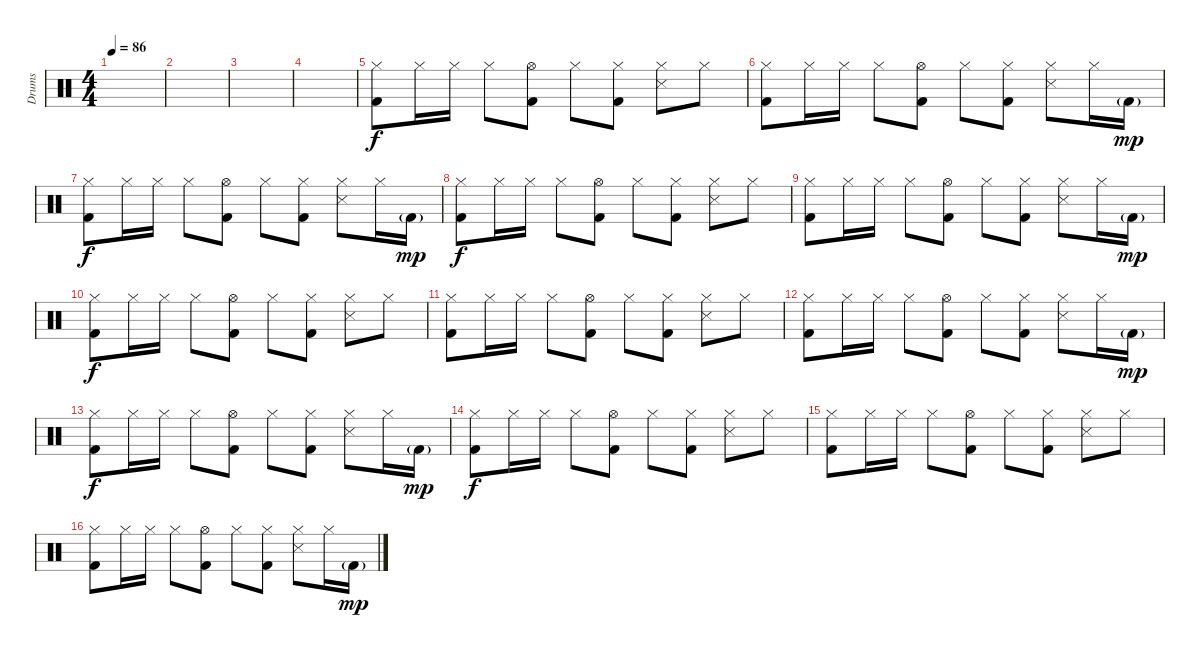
\track ("Drums" "Drums") {instrument percussion}
\staff {score}
\articulation defaults
\ts (4 4)
\tempo 86
\clef neutral
\ks c
|
|
|
|
("Hi-Hat (closed)" "Kick (hit) 2").8 "Hi-Hat (closed)".16 "Hi-Hat (closed)".16 "Hi-Hat (closed)".8 ("Hi-Hat (open)" "Kick (hit) 2").8 "Hi-Hat (closed)".8 ("Hi-Hat (closed)" "Kick (hit) 2").8 ("Hi-Hat (closed)" "Snare (side stick) 3").8 "Hi-Hat (closed)".8 |
("Hi-Hat (closed)" "Kick (hit) 2").8 "Hi-Hat (closed)".16 "Hi-Hat (closed)".16 "Hi-Hat (closed)".8 ("Hi-Hat (open)" "Kick (hit) 2").8 "Hi-Hat (closed)".8 ("Hi-Hat (closed)" "Kick (hit) 2").8 ("Hi-Hat (closed)" "Snare (side stick) 3").8 "Hi-Hat (closed)".16 "Kick (hit) 2"{g}.16{dy mp} |
("Hi-Hat (closed)" "Kick (hit) 2").8{dy f} "Hi-Hat (closed)".16 "Hi-Hat (closed)".16 "Hi-Hat (closed)".8 ("Hi-Hat (open)" "Kick (hit) 2").8 "Hi-Hat (closed)".8 ("Hi-Hat (closed)" "Kick (hit) 2").8 ("Hi-Hat (closed)" "Snare (side stick) 3").8 "Hi-Hat (closed)".16 "Kick (hit) 2"{g}.16{dy mp} |
("Hi-Hat (closed)" "Kick (hit) 2").8{dy f} "Hi-Hat (closed)".16 "Hi-Hat (closed)".16 "Hi-Hat (closed)".8 ("Hi-Hat (open)" "Kick (hit) 2").8 "Hi-Hat (closed)".8 ("Hi-Hat (closed)" "Kick (hit) 2").8 ("Hi-Hat (closed)" "Snare (side stick) 3").8 "Hi-Hat (closed)".8 |
("Hi-Hat (closed)" "Kick (hit) 2").8 "Hi-Hat (closed)".16 "Hi-Hat (closed)".16 "Hi-Hat (closed)".8 ("Hi-Hat (open)" "Kick (hit) 2").8 "Hi-Hat (closed)".8 ("Hi-Hat (closed)" "Kick (hit) 2").8 ("Hi-Hat (closed)" "Snare (side stick) 3").8 "Hi-Hat (closed)".16 "Kick (hit) 2"{g}.16{dy mp} |
("Hi-Hat (closed)" "Kick (hit) 2").8{dy f} "Hi-Hat (closed)".16 "Hi-Hat (closed)".16 "Hi-Hat (closed)".8 ("Hi-Hat (open)" "Kick (hit) 2").8 "Hi-Hat (closed)".8 ("Hi-Hat (closed)" "Kick (hit) 2").8 ("Hi-Hat (closed)" "Snare (side stick) 3").8 "Hi-Hat (closed)".8 |
("Hi-Hat (closed)" "Kick (hit) 2").8 "Hi-Hat (closed)".16 "Hi-Hat (closed)".16 "Hi-Hat (closed)".8 ("Hi-Hat (open)" "Kick (hit) 2").8 "Hi-Hat (closed)".8 ("Hi-Hat (closed)" "Kick (hit) 2").8 ("Hi-Hat (closed)" "Snare (side stick) 3").8 "Hi-Hat (closed)".8 |
("Hi-Hat (closed)" "Kick (hit) 2").8 "Hi-Hat (closed)".16 "Hi-Hat (closed)".16 "Hi-Hat (closed)".8 ("Hi-Hat (open)" "Kick (hit) 2").8 "Hi-Hat (closed)".8 ("Hi-Hat (closed)" "Kick (hit) 2").8 ("Hi-Hat (closed)" "Snare (side stick) 3").8 "Hi-Hat (closed)".16 "Kick (hit) 2"{g}.16{dy mp} |
("Hi-Hat (closed)" "Kick (hit) 2").8{dy f} "Hi-Hat (closed)".16 "Hi-Hat (closed)".16 "Hi-Hat (closed)".8 ("Hi-Hat (open)" "Kick (hit) 2").8 "Hi-Hat (closed)".8 ("Hi-Hat (closed)" "Kick (hit) 2").8 ("Hi-Hat (closed)" "Snare (side stick) 3").8 "Hi-Hat (closed)".16 "Kick (hit) 2"{g}.16{dy mp} |
("Hi-Hat (closed)" "Kick (hit) 2").8{dy f} "Hi-Hat (closed)".16 "Hi-Hat (closed)".16 "Hi-Hat (closed)".8 ("Hi-Hat (open)" "Kick (hit) 2").8 "Hi-Hat (closed)".8 ("Hi-Hat (closed)" "Kick (hit) 2").8 ("Hi-Hat (closed)" "Snare (side stick) 3").8 "Hi-Hat (closed)".8 |
("Hi-Hat (closed)" "Kick (hit) 2").8 "Hi-Hat (closed)".16 "Hi-Hat (closed)".16 "Hi-Hat (closed)".8 ("Hi-Hat (open)" "Kick (hit) 2").8 "Hi-Hat (closed)".8 ("Hi-Hat (closed)" "Kick (hit) 2").8 ("Hi-Hat (closed)" "Snare (side stick) 3").8 "Hi-Hat (closed)".8 |
("Hi-Hat (closed)" "Kick (hit) 2").8 "Hi-Hat (closed)".16 "Hi-Hat (closed)".16 "Hi-Hat (closed)".8 ("Hi-Hat (open)" "Kick (hit) 2").8 "Hi-Hat (closed)".8 ("Hi-Hat (closed)" "Kick (hit) 2").8 ("Hi-Hat (closed)" "Snare (side stick) 3").8 "Hi-Hat (closed)".16 "Kick (hit) 2"{g}.16{dy mp}
